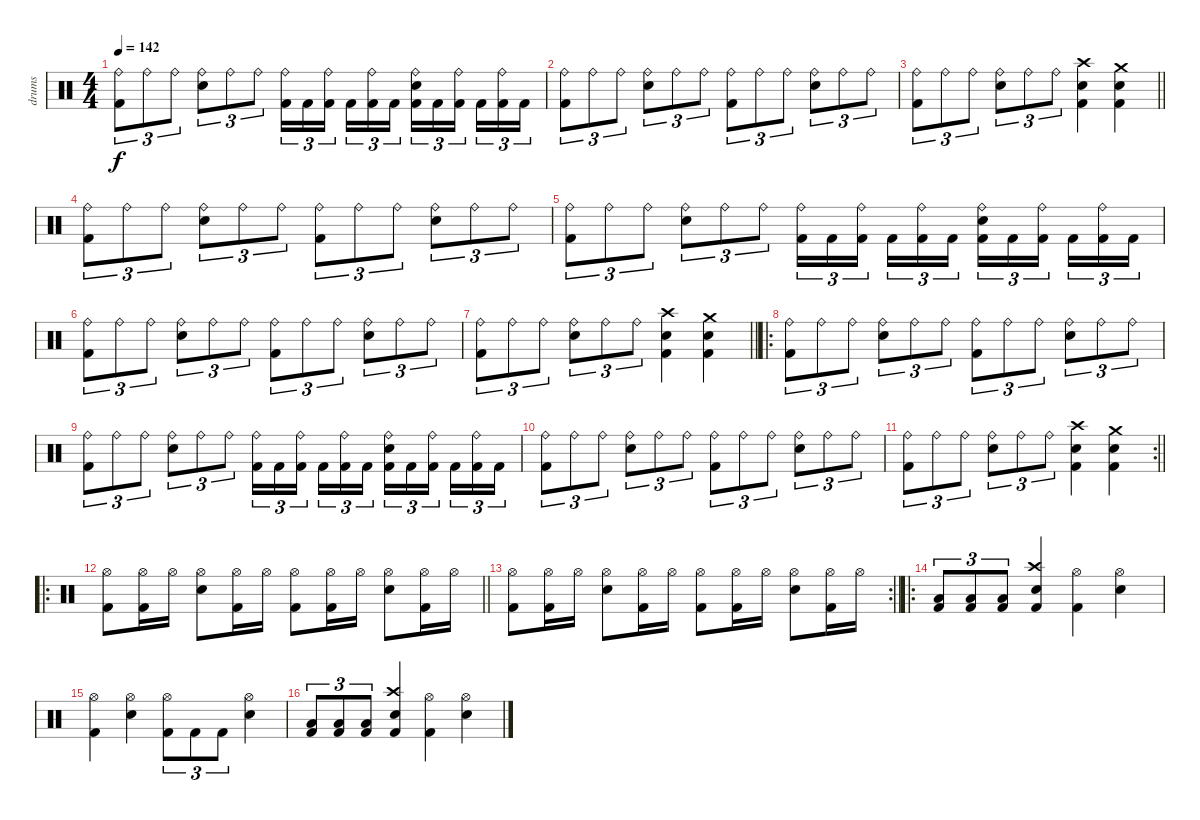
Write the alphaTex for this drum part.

\track ("drums" "drums") {instrument percussion}
\staff {score}
\articulation defaults
\ts (4 4)
\tempo 142
\clef neutral
\ks c
("Ride (bell)" "Kick (hit) 2").8{tu (3 2) dy f} "Ride (bell)".8{tu (3 2)} "Ride (bell)".8{tu (3 2)} ("Ride (bell)" "Electric Snare (hit)").8{tu (3 2)} "Ride (bell)".8{tu (3 2)} "Ride (bell)".8{tu (3 2)} ("Ride (bell)" "Kick (hit) 2").16{tu (3 2)} "Kick (hit) 2".16{tu (3 2)} ("Ride (bell)" "Kick (hit) 2").16{tu (3 2) beam splitsecondary} "Kick (hit) 2".16{tu (3 2)} ("Ride (bell)" "Kick (hit) 2").16{tu (3 2)} "Kick (hit) 2".16{tu (3 2)} ("Ride (bell)" "Electric Snare (hit)" "Kick (hit) 2").16{tu (3 2)} "Kick (hit) 2".16{tu (3 2)} ("Ride (bell)" "Kick (hit) 2").16{tu (3 2) beam splitsecondary} "Kick (hit) 2".16{tu (3 2)} ("Ride (bell)" "Kick (hit) 2").16{tu (3 2)} "Kick (hit) 2".16{tu (3 2)} |
("Ride (bell)" "Kick (hit) 2").8{tu (3 2)} "Ride (bell)".8{tu (3 2)} "Ride (bell)".8{tu (3 2)} ("Ride (bell)" "Electric Snare (hit)").8{tu (3 2)} "Ride (bell)".8{tu (3 2)} "Ride (bell)".8{tu (3 2)} ("Ride (bell)" "Kick (hit) 2").8{tu (3 2)} "Ride (bell)".8{tu (3 2)} "Ride (bell)".8{tu (3 2)} ("Ride (bell)" "Electric Snare (hit)").8{tu (3 2)} "Ride (bell)".8{tu (3 2)} "Ride (bell)".8{tu (3 2)} |
\barLineRight lightlight
("Ride (bell)" "Kick (hit) 2").8{tu (3 2)} "Ride (bell)".8{tu (3 2)} "Ride (bell)".8{tu (3 2)} ("Ride (bell)" "Electric Snare (hit)").8{tu (3 2)} "Ride (bell)".8{tu (3 2)} "Ride (bell)".8{tu (3 2)} ("Crash high (hit)" "Electric Snare (hit)" "Kick (hit) 2").4 ("Crash medium (hit)" "Electric Snare (hit)" "Kick (hit) 2").4 |
("Ride (bell)" "Kick (hit) 2").8{tu (3 2)} "Ride (bell)".8{tu (3 2)} "Ride (bell)".8{tu (3 2)} ("Ride (bell)" "Electric Snare (hit)").8{tu (3 2)} "Ride (bell)".8{tu (3 2)} "Ride (bell)".8{tu (3 2)} ("Ride (bell)" "Kick (hit) 2").8{tu (3 2)} "Ride (bell)".8{tu (3 2)} "Ride (bell)".8{tu (3 2)} ("Ride (bell)" "Electric Snare (hit)").8{tu (3 2)} "Ride (bell)".8{tu (3 2)} "Ride (bell)".8{tu (3 2)} |
("Ride (bell)" "Kick (hit) 2").8{tu (3 2)} "Ride (bell)".8{tu (3 2)} "Ride (bell)".8{tu (3 2)} ("Ride (bell)" "Electric Snare (hit)").8{tu (3 2)} "Ride (bell)".8{tu (3 2)} "Ride (bell)".8{tu (3 2)} ("Ride (bell)" "Kick (hit) 2").16{tu (3 2)} "Kick (hit) 2".16{tu (3 2)} ("Ride (bell)" "Kick (hit) 2").16{tu (3 2) beam splitsecondary} "Kick (hit) 2".16{tu (3 2)} ("Ride (bell)" "Kick (hit) 2").16{tu (3 2)} "Kick (hit) 2".16{tu (3 2)} ("Ride (bell)" "Electric Snare (hit)" "Kick (hit) 2").16{tu (3 2)} "Kick (hit) 2".16{tu (3 2)} ("Ride (bell)" "Kick (hit) 2").16{tu (3 2) beam splitsecondary} "Kick (hit) 2".16{tu (3 2)} ("Ride (bell)" "Kick (hit) 2").16{tu (3 2)} "Kick (hit) 2".16{tu (3 2)} |
("Ride (bell)" "Kick (hit) 2").8{tu (3 2)} "Ride (bell)".8{tu (3 2)} "Ride (bell)".8{tu (3 2)} ("Ride (bell)" "Electric Snare (hit)").8{tu (3 2)} "Ride (bell)".8{tu (3 2)} "Ride (bell)".8{tu (3 2)} ("Ride (bell)" "Kick (hit) 2").8{tu (3 2)} "Ride (bell)".8{tu (3 2)} "Ride (bell)".8{tu (3 2)} ("Ride (bell)" "Electric Snare (hit)").8{tu (3 2)} "Ride (bell)".8{tu (3 2)} "Ride (bell)".8{tu (3 2)} |
\barLineRight lightlight
("Ride (bell)" "Kick (hit) 2").8{tu (3 2)} "Ride (bell)".8{tu (3 2)} "Ride (bell)".8{tu (3 2)} ("Ride (bell)" "Electric Snare (hit)").8{tu (3 2)} "Ride (bell)".8{tu (3 2)} "Ride (bell)".8{tu (3 2)} ("Crash high (hit)" "Electric Snare (hit)" "Kick (hit) 2").4 ("Crash medium (hit)" "Electric Snare (hit)" "Kick (hit) 2").4 |
\ro
\section ("" "")
("Ride (bell)" "Kick (hit) 2").8{tu (3 2)} "Ride (bell)".8{tu (3 2)} "Ride (bell)".8{tu (3 2)} ("Ride (bell)" "Electric Snare (hit)").8{tu (3 2)} "Ride (bell)".8{tu (3 2)} "Ride (bell)".8{tu (3 2)} ("Ride (bell)" "Kick (hit) 2").8{tu (3 2)} "Ride (bell)".8{tu (3 2)} "Ride (bell)".8{tu (3 2)} ("Ride (bell)" "Electric Snare (hit)").8{tu (3 2)} "Ride (bell)".8{tu (3 2)} "Ride (bell)".8{tu (3 2)} |
("Ride (bell)" "Kick (hit) 2").8{tu (3 2)} "Ride (bell)".8{tu (3 2)} "Ride (bell)".8{tu (3 2)} ("Ride (bell)" "Electric Snare (hit)").8{tu (3 2)} "Ride (bell)".8{tu (3 2)} "Ride (bell)".8{tu (3 2)} ("Ride (bell)" "Kick (hit) 2").16{tu (3 2)} "Kick (hit) 2".16{tu (3 2)} ("Ride (bell)" "Kick (hit) 2").16{tu (3 2) beam splitsecondary} "Kick (hit) 2".16{tu (3 2)} ("Ride (bell)" "Kick (hit) 2").16{tu (3 2)} "Kick (hit) 2".16{tu (3 2)} ("Ride (bell)" "Electric Snare (hit)" "Kick (hit) 2").16{tu (3 2)} "Kick (hit) 2".16{tu (3 2)} ("Ride (bell)" "Kick (hit) 2").16{tu (3 2) beam splitsecondary} "Kick (hit) 2".16{tu (3 2)} ("Ride (bell)" "Kick (hit) 2").16{tu (3 2)} "Kick (hit) 2".16{tu (3 2)} |
("Ride (bell)" "Kick (hit) 2").8{tu (3 2)} "Ride (bell)".8{tu (3 2)} "Ride (bell)".8{tu (3 2)} ("Ride (bell)" "Electric Snare (hit)").8{tu (3 2)} "Ride (bell)".8{tu (3 2)} "Ride (bell)".8{tu (3 2)} ("Ride (bell)" "Kick (hit) 2").8{tu (3 2)} "Ride (bell)".8{tu (3 2)} "Ride (bell)".8{tu (3 2)} ("Ride (bell)" "Electric Snare (hit)").8{tu (3 2)} "Ride (bell)".8{tu (3 2)} "Ride (bell)".8{tu (3 2)} |
\rc 2
\barLineRight lightlight
("Ride (bell)" "Kick (hit) 2").8{tu (3 2)} "Ride (bell)".8{tu (3 2)} "Ride (bell)".8{tu (3 2)} ("Ride (bell)" "Electric Snare (hit)").8{tu (3 2)} "Ride (bell)".8{tu (3 2)} "Ride (bell)".8{tu (3 2)} ("Crash high (hit)" "Electric Snare (hit)" "Kick (hit) 2").4 ("Crash medium (hit)" "Electric Snare (hit)" "Kick (hit) 2").4 |
\ro
\section ("" "")
\barLineRight lightlight
("Hi-Hat (open)" "Kick (hit) 2").8 ("Hi-Hat (open)" "Kick (hit) 2").16 "Hi-Hat (open)".16 ("Hi-Hat (open)" "Snare (hit) 2").8 ("Hi-Hat (open)" "Kick (hit) 2").16 "Hi-Hat (open)".16 ("Hi-Hat (open)" "Kick (hit) 2").8 ("Hi-Hat (open)" "Kick (hit) 2").16 "Hi-Hat (open)".16 ("Hi-Hat (open)" "Snare (hit) 2").8 ("Hi-Hat (open)" "Kick (hit) 2").16 "Hi-Hat (open)".16 |
\rc 2
\barLineRight lightlight
("Hi-Hat (open)" "Kick (hit) 2").8 ("Hi-Hat (open)" "Kick (hit) 2").16 "Hi-Hat (open)".16 ("Hi-Hat (open)" "Snare (hit) 2").8 ("Hi-Hat (open)" "Kick (hit) 2").16 "Hi-Hat (open)".16 ("Hi-Hat (open)" "Kick (hit) 2").8 ("Hi-Hat (open)" "Kick (hit) 2").16 "Hi-Hat (open)".16 ("Hi-Hat (open)" "Snare (hit) 2").8 ("Hi-Hat (open)" "Kick (hit) 2").16 "Hi-Hat (open)".16 |
\ro
\section ("" "")
("Low Tom (hit)" "Kick (hit) 2").8{tu (3 2)} ("Low Tom (hit)" "Kick (hit) 2").8{tu (3 2)} ("Low Tom (hit)" "Kick (hit) 2").8{tu (3 2)} ("Crash high (hit)" "Snare (hit) 2" "Kick (hit) 2").4 ("Hi-Hat (open)" "Kick (hit) 2").4 ("Hi-Hat (open)" "Snare (hit) 2").4 |
("Hi-Hat (open)" "Kick (hit) 2").4 ("Hi-Hat (open)" "Snare (hit) 2").4 ("Hi-Hat (open)" "Kick (hit) 2").8{tu (3 2)} "Kick (hit) 2".8{tu (3 2)} "Kick (hit) 2".8{tu (3 2)} ("Hi-Hat (open)" "Snare (hit) 2").4 |
("Low Tom (hit)" "Kick (hit) 2").8{tu (3 2)} ("Low Tom (hit)" "Kick (hit) 2").8{tu (3 2)} ("Low Tom (hit)" "Kick (hit) 2").8{tu (3 2)} ("Crash high (hit)" "Snare (hit) 2" "Kick (hit) 2").4 ("Hi-Hat (open)" "Kick (hit) 2").4 ("Hi-Hat (open)" "Snare (hit) 2").4
